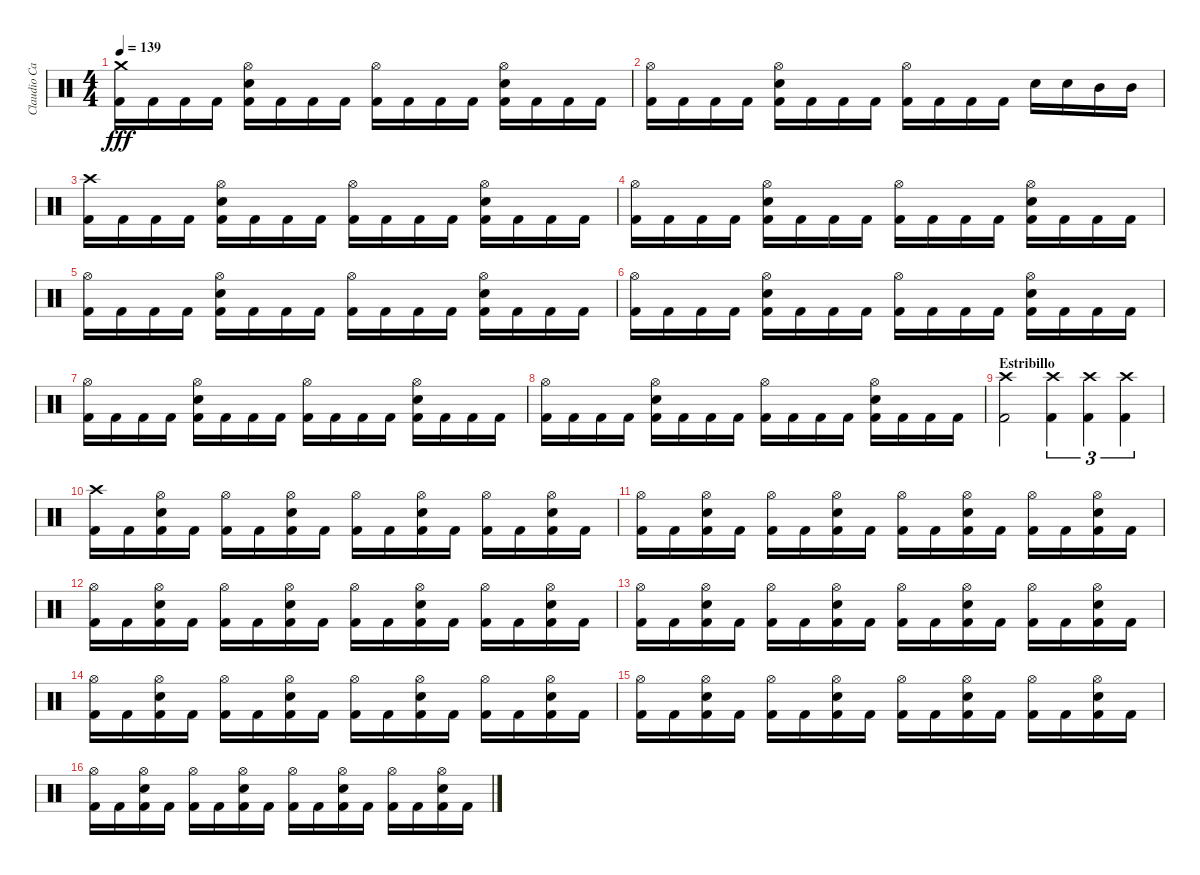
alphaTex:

\track ("Claudio Cardaci" "Claudio Ca") {instrument percussion}
\staff {score}
\articulation defaults
\ts (4 4)
\tempo 139
\clef neutral
\ks c
("Kick (hit) 2" "Crash medium (hit)").16{dy fff} "Kick (hit) 2".16 "Kick (hit) 2".16 "Kick (hit) 2".16 ("Kick (hit) 2" "Electric Snare (hit)" "Hi-Hat (open)").16 "Kick (hit) 2".16 "Kick (hit) 2".16 "Kick (hit) 2".16 ("Kick (hit) 2" "Hi-Hat (open)").16 "Kick (hit) 2".16 "Kick (hit) 2".16 "Kick (hit) 2".16 ("Kick (hit) 2" "Electric Snare (hit)" "Hi-Hat (open)").16 "Kick (hit) 2".16 "Kick (hit) 2".16 "Kick (hit) 2".16 |
("Kick (hit) 2" "Hi-Hat (open)").16 "Kick (hit) 2".16 "Kick (hit) 2".16 "Kick (hit) 2".16 ("Kick (hit) 2" "Electric Snare (hit)" "Hi-Hat (open)").16 "Kick (hit) 2".16 "Kick (hit) 2".16 "Kick (hit) 2".16 ("Kick (hit) 2" "Hi-Hat (open)").16 "Kick (hit) 2".16 "Kick (hit) 2".16 "Kick (hit) 2".16 "Electric Snare (hit)".16 "Electric Snare (hit)".16 "Mid Tom (hit)".16 "Mid Tom (hit)".16 |
("Kick (hit) 2" "Crash high (hit)").16 "Kick (hit) 2".16 "Kick (hit) 2".16 "Kick (hit) 2".16 ("Kick (hit) 2" "Electric Snare (hit)" "Hi-Hat (open)").16 "Kick (hit) 2".16 "Kick (hit) 2".16 "Kick (hit) 2".16 ("Kick (hit) 2" "Hi-Hat (open)").16 "Kick (hit) 2".16 "Kick (hit) 2".16 "Kick (hit) 2".16 ("Kick (hit) 2" "Electric Snare (hit)" "Hi-Hat (open)").16 "Kick (hit) 2".16 "Kick (hit) 2".16 "Kick (hit) 2".16 |
("Kick (hit) 2" "Hi-Hat (open)").16 "Kick (hit) 2".16 "Kick (hit) 2".16 "Kick (hit) 2".16 ("Kick (hit) 2" "Electric Snare (hit)" "Hi-Hat (open)").16 "Kick (hit) 2".16 "Kick (hit) 2".16 "Kick (hit) 2".16 ("Kick (hit) 2" "Hi-Hat (open)").16 "Kick (hit) 2".16 "Kick (hit) 2".16 "Kick (hit) 2".16 ("Kick (hit) 2" "Electric Snare (hit)" "Hi-Hat (open)").16 "Kick (hit) 2".16 "Kick (hit) 2".16 "Kick (hit) 2".16 |
("Kick (hit) 2" "Hi-Hat (open)").16 "Kick (hit) 2".16 "Kick (hit) 2".16 "Kick (hit) 2".16 ("Kick (hit) 2" "Electric Snare (hit)" "Hi-Hat (open)").16 "Kick (hit) 2".16 "Kick (hit) 2".16 "Kick (hit) 2".16 ("Kick (hit) 2" "Hi-Hat (open)").16 "Kick (hit) 2".16 "Kick (hit) 2".16 "Kick (hit) 2".16 ("Kick (hit) 2" "Electric Snare (hit)" "Hi-Hat (open)").16 "Kick (hit) 2".16 "Kick (hit) 2".16 "Kick (hit) 2".16 |
("Kick (hit) 2" "Hi-Hat (open)").16 "Kick (hit) 2".16 "Kick (hit) 2".16 "Kick (hit) 2".16 ("Kick (hit) 2" "Electric Snare (hit)" "Hi-Hat (open)").16 "Kick (hit) 2".16 "Kick (hit) 2".16 "Kick (hit) 2".16 ("Kick (hit) 2" "Hi-Hat (open)").16 "Kick (hit) 2".16 "Kick (hit) 2".16 "Kick (hit) 2".16 ("Kick (hit) 2" "Electric Snare (hit)" "Hi-Hat (open)").16 "Kick (hit) 2".16 "Kick (hit) 2".16 "Kick (hit) 2".16 |
("Kick (hit) 2" "Hi-Hat (open)").16 "Kick (hit) 2".16 "Kick (hit) 2".16 "Kick (hit) 2".16 ("Kick (hit) 2" "Electric Snare (hit)" "Hi-Hat (open)").16 "Kick (hit) 2".16 "Kick (hit) 2".16 "Kick (hit) 2".16 ("Kick (hit) 2" "Hi-Hat (open)").16 "Kick (hit) 2".16 "Kick (hit) 2".16 "Kick (hit) 2".16 ("Kick (hit) 2" "Electric Snare (hit)" "Hi-Hat (open)").16 "Kick (hit) 2".16 "Kick (hit) 2".16 "Kick (hit) 2".16 |
("Kick (hit) 2" "Hi-Hat (open)").16 "Kick (hit) 2".16 "Kick (hit) 2".16 "Kick (hit) 2".16 ("Kick (hit) 2" "Electric Snare (hit)" "Hi-Hat (open)").16 "Kick (hit) 2".16 "Kick (hit) 2".16 "Kick (hit) 2".16 ("Kick (hit) 2" "Hi-Hat (open)").16 "Kick (hit) 2".16 "Kick (hit) 2".16 "Kick (hit) 2".16 ("Kick (hit) 2" "Electric Snare (hit)" "Hi-Hat (open)").16 "Kick (hit) 2".16 "Kick (hit) 2".16 "Kick (hit) 2".16 |
\section ("" "Estribillo")
("Kick (hit) 2" "Crash high (hit)").2 ("Kick (hit) 2" "Crash high (hit)").4{tu (3 2)} ("Kick (hit) 2" "Crash high (hit)").4{tu (3 2)} ("Kick (hit) 2" "Crash high (hit)").4{tu (3 2)} |
("Kick (hit) 2" "Crash high (hit)").16 "Kick (hit) 2".16 ("Kick (hit) 2" "Electric Snare (hit)" "Hi-Hat (open)").16 "Kick (hit) 2".16 ("Kick (hit) 2" "Hi-Hat (open)").16 "Kick (hit) 2".16 ("Kick (hit) 2" "Electric Snare (hit)" "Hi-Hat (open)").16 "Kick (hit) 2".16 ("Kick (hit) 2" "Hi-Hat (open)").16 "Kick (hit) 2".16 ("Kick (hit) 2" "Electric Snare (hit)" "Hi-Hat (open)").16 "Kick (hit) 2".16 ("Kick (hit) 2" "Hi-Hat (open)").16 "Kick (hit) 2".16 ("Kick (hit) 2" "Electric Snare (hit)" "Hi-Hat (open)").16 "Kick (hit) 2".16 |
("Kick (hit) 2" "Hi-Hat (open)").16 "Kick (hit) 2".16 ("Kick (hit) 2" "Electric Snare (hit)" "Hi-Hat (open)").16 "Kick (hit) 2".16 ("Kick (hit) 2" "Hi-Hat (open)").16 "Kick (hit) 2".16 ("Kick (hit) 2" "Electric Snare (hit)" "Hi-Hat (open)").16 "Kick (hit) 2".16 ("Kick (hit) 2" "Hi-Hat (open)").16 "Kick (hit) 2".16 ("Kick (hit) 2" "Electric Snare (hit)" "Hi-Hat (open)").16 "Kick (hit) 2".16 ("Kick (hit) 2" "Hi-Hat (open)").16 "Kick (hit) 2".16 ("Kick (hit) 2" "Electric Snare (hit)" "Hi-Hat (open)").16 "Kick (hit) 2".16 |
("Kick (hit) 2" "Hi-Hat (open)").16 "Kick (hit) 2".16 ("Kick (hit) 2" "Electric Snare (hit)" "Hi-Hat (open)").16 "Kick (hit) 2".16 ("Kick (hit) 2" "Hi-Hat (open)").16 "Kick (hit) 2".16 ("Kick (hit) 2" "Electric Snare (hit)" "Hi-Hat (open)").16 "Kick (hit) 2".16 ("Kick (hit) 2" "Hi-Hat (open)").16 "Kick (hit) 2".16 ("Kick (hit) 2" "Electric Snare (hit)" "Hi-Hat (open)").16 "Kick (hit) 2".16 ("Kick (hit) 2" "Hi-Hat (open)").16 "Kick (hit) 2".16 ("Kick (hit) 2" "Electric Snare (hit)" "Hi-Hat (open)").16 "Kick (hit) 2".16 |
("Kick (hit) 2" "Hi-Hat (open)").16 "Kick (hit) 2".16 ("Kick (hit) 2" "Electric Snare (hit)" "Hi-Hat (open)").16 "Kick (hit) 2".16 ("Kick (hit) 2" "Hi-Hat (open)").16 "Kick (hit) 2".16 ("Kick (hit) 2" "Electric Snare (hit)" "Hi-Hat (open)").16 "Kick (hit) 2".16 ("Kick (hit) 2" "Hi-Hat (open)").16 "Kick (hit) 2".16 ("Kick (hit) 2" "Electric Snare (hit)" "Hi-Hat (open)").16 "Kick (hit) 2".16 ("Kick (hit) 2" "Hi-Hat (open)").16 "Kick (hit) 2".16 ("Kick (hit) 2" "Electric Snare (hit)" "Hi-Hat (open)").16 "Kick (hit) 2".16 |
("Kick (hit) 2" "Hi-Hat (open)").16 "Kick (hit) 2".16 ("Kick (hit) 2" "Electric Snare (hit)" "Hi-Hat (open)").16 "Kick (hit) 2".16 ("Kick (hit) 2" "Hi-Hat (open)").16 "Kick (hit) 2".16 ("Kick (hit) 2" "Electric Snare (hit)" "Hi-Hat (open)").16 "Kick (hit) 2".16 ("Kick (hit) 2" "Hi-Hat (open)").16 "Kick (hit) 2".16 ("Kick (hit) 2" "Electric Snare (hit)" "Hi-Hat (open)").16 "Kick (hit) 2".16 ("Kick (hit) 2" "Hi-Hat (open)").16 "Kick (hit) 2".16 ("Kick (hit) 2" "Electric Snare (hit)" "Hi-Hat (open)").16 "Kick (hit) 2".16 |
("Kick (hit) 2" "Hi-Hat (open)").16 "Kick (hit) 2".16 ("Kick (hit) 2" "Electric Snare (hit)" "Hi-Hat (open)").16 "Kick (hit) 2".16 ("Kick (hit) 2" "Hi-Hat (open)").16 "Kick (hit) 2".16 ("Kick (hit) 2" "Electric Snare (hit)" "Hi-Hat (open)").16 "Kick (hit) 2".16 ("Kick (hit) 2" "Hi-Hat (open)").16 "Kick (hit) 2".16 ("Kick (hit) 2" "Electric Snare (hit)" "Hi-Hat (open)").16 "Kick (hit) 2".16 ("Kick (hit) 2" "Hi-Hat (open)").16 "Kick (hit) 2".16 ("Kick (hit) 2" "Electric Snare (hit)" "Hi-Hat (open)").16 "Kick (hit) 2".16 |
("Kick (hit) 2" "Hi-Hat (open)").16 "Kick (hit) 2".16 ("Kick (hit) 2" "Electric Snare (hit)" "Hi-Hat (open)").16 "Kick (hit) 2".16 ("Kick (hit) 2" "Hi-Hat (open)").16 "Kick (hit) 2".16 ("Kick (hit) 2" "Electric Snare (hit)" "Hi-Hat (open)").16 "Kick (hit) 2".16 ("Kick (hit) 2" "Hi-Hat (open)").16 "Kick (hit) 2".16 ("Kick (hit) 2" "Electric Snare (hit)" "Hi-Hat (open)").16 "Kick (hit) 2".16 ("Kick (hit) 2" "Hi-Hat (open)").16 "Kick (hit) 2".16 ("Kick (hit) 2" "Electric Snare (hit)" "Hi-Hat (open)").16 "Kick (hit) 2".16
